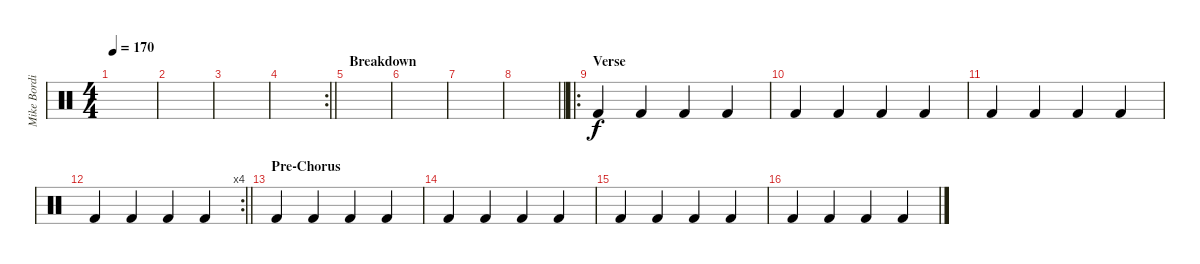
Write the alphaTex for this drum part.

\track ("Mike Bordin Backing" "Mike Bordi") {instrument percussion}
\staff {score}
\articulation defaults
\ts (4 4)
\tempo 170
\clef neutral
\ks c
|
|
|
\rc 2
\barLineRight lightlight
|
\section ("" "Breakdown")
|
|
|
\barLineRight lightlight
|
\ro
\section ("" "Verse")
"Kick (hit) 2".4 "Kick (hit) 2".4 "Kick (hit) 2".4 "Kick (hit) 2".4 |
"Kick (hit) 2".4 "Kick (hit) 2".4 "Kick (hit) 2".4 "Kick (hit) 2".4 |
"Kick (hit) 2".4 "Kick (hit) 2".4 "Kick (hit) 2".4 "Kick (hit) 2".4 |
\rc 4
\barLineRight lightlight "Kick (hit) 2".4 "Kick (hit) 2".4 "Kick (hit) 2".4 "Kick (hit) 2".4
|
\section ("" "Pre-Chorus")
"Kick (hit) 2".4 "Kick (hit) 2".4 "Kick (hit) 2".4 "Kick (hit) 2".4 |
"Kick (hit) 2".4 "Kick (hit) 2".4 "Kick (hit) 2".4 "Kick (hit) 2".4 |
"Kick (hit) 2".4 "Kick (hit) 2".4 "Kick (hit) 2".4 "Kick (hit) 2".4 |
"Kick (hit) 2".4 "Kick (hit) 2".4 "Kick (hit) 2".4 "Kick (hit) 2".4
